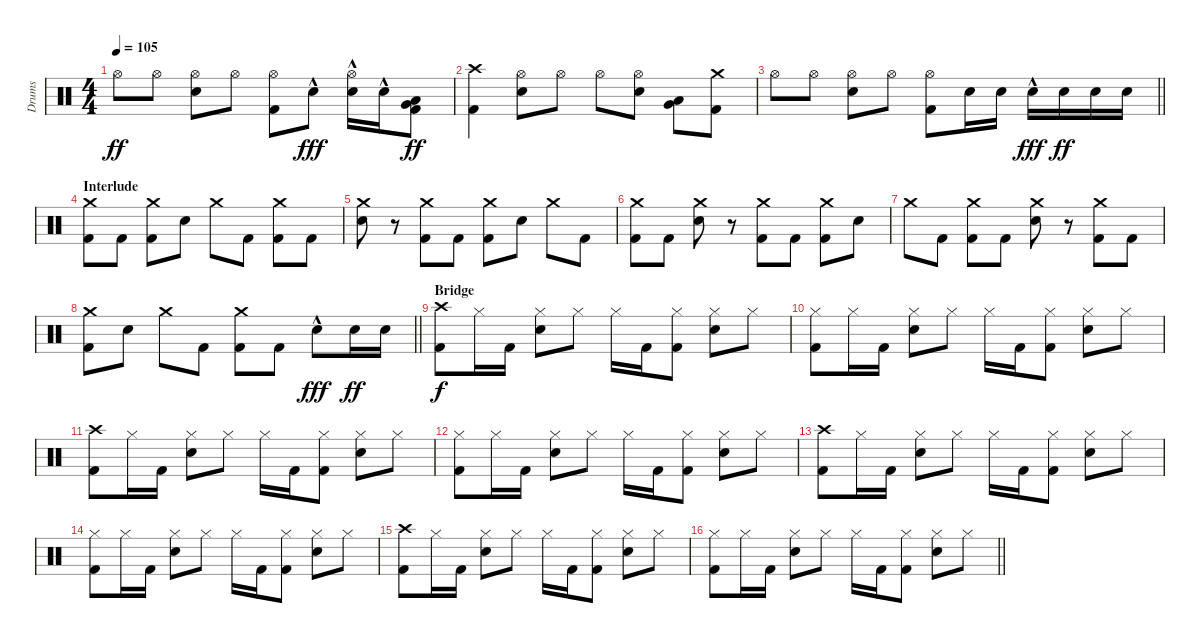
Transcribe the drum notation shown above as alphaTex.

\track ("Drums" "Drums") {instrument percussion}
\staff {score}
\articulation defaults
\ts (4 4)
\tempo 105
\clef neutral
\ks c "Hi-Hat (open)".8{dy ff} "Hi-Hat (open)".8
("Hi-Hat (open)" "Electric Snare (hit)").8 "Hi-Hat (open)".8 ("Hi-Hat (open)" "Kick (hit) 2").8 "Electric Snare (hit)"{hac}.8{dy fff} ("Hi-Hat (open)" "Electric Snare (hit)"{hac}).16 "Electric Snare (hit)"{hac}.16 ("Very Low Tom (hit)" "Low Floor Tom (hit)" "Kick (hit) 2").8{dy ff} |
("Crash high (hit)" "Kick (hit) 2").4 ("Hi-Hat (open)" "Electric Snare (hit)").8 "Hi-Hat (open)".8 "Hi-Hat (open)".8 ("Hi-Hat (open)" "Electric Snare (hit)").8 ("Very Low Tom (hit)" "Low Floor Tom (hit)").8 ("Crash medium (hit)" "Kick (hit) 2").8 |
\barLineRight lightlight "Hi-Hat (open)".8 "Hi-Hat (open)".8
("Hi-Hat (open)" "Electric Snare (hit)").8 "Hi-Hat (open)".8 ("Hi-Hat (open)" "Kick (hit) 2").8 "Electric Snare (hit)".16 "Electric Snare (hit)".16 "Electric Snare (hit)"{hac}.16{dy fff} "Electric Snare (hit)".16{dy ff} "Electric Snare (hit)".16 "Electric Snare (hit)".16 |
\section ("" "Interlude")
("Crash medium (hit)" "Kick (hit) 2").8 "Kick (hit) 2".8 ("Crash medium (hit)" "Kick (hit) 2").8 "Electric Snare (hit)".8 "Crash medium (hit)".8 "Kick (hit) 2".8 ("Crash medium (hit)" "Kick (hit) 2").8 "Kick (hit) 2".8 |
("Crash medium (hit)" "Electric Snare (hit)").8 r.8 ("Crash medium (hit)" "Kick (hit) 2").8 "Kick (hit) 2".8 ("Crash medium (hit)" "Kick (hit) 2").8 "Electric Snare (hit)".8 "Crash medium (hit)".8 "Kick (hit) 2".8 |
("Crash medium (hit)" "Kick (hit) 2").8 "Kick (hit) 2".8 ("Crash medium (hit)" "Electric Snare (hit)").8 r.8 ("Crash medium (hit)" "Kick (hit) 2").8 "Kick (hit) 2".8 ("Crash medium (hit)" "Kick (hit) 2").8 "Electric Snare (hit)".8 |
"Crash medium (hit)".8 "Kick (hit) 2".8 ("Crash medium (hit)" "Kick (hit) 2").8 "Kick (hit) 2".8 ("Crash medium (hit)" "Electric Snare (hit)").8 r.8 ("Crash medium (hit)" "Kick (hit) 2").8 "Kick (hit) 2".8 |
\barLineRight lightlight
("Crash medium (hit)" "Kick (hit) 2").8 "Electric Snare (hit)".8 "Crash medium (hit)".8 "Kick (hit) 2".8 ("Crash medium (hit)" "Kick (hit) 2").8 "Kick (hit) 2".8 "Electric Snare (hit)"{hac}.8{dy fff} "Electric Snare (hit)".16{dy ff} "Electric Snare (hit)".16 |
\section ("" "Bridge")
("Crash high (hit)" "Kick (hit) 2").8{dy f} "Hi-Hat (closed)".16 "Kick (hit) 2".16 ("Hi-Hat (closed)" "Electric Snare (hit)").8 "Hi-Hat (closed)".8 "Hi-Hat (closed)".16 "Kick (hit) 2".16 ("Hi-Hat (closed)" "Kick (hit) 2").8 ("Hi-Hat (closed)" "Electric Snare (hit)").8 "Hi-Hat (closed)".8 |
("Hi-Hat (closed)" "Kick (hit) 2").8 "Hi-Hat (closed)".16 "Kick (hit) 2".16 ("Hi-Hat (closed)" "Electric Snare (hit)").8 "Hi-Hat (closed)".8 "Hi-Hat (closed)".16 "Kick (hit) 2".16 ("Hi-Hat (closed)" "Kick (hit) 2").8 ("Hi-Hat (closed)" "Electric Snare (hit)").8 "Hi-Hat (closed)".8 |
("Crash high (hit)" "Kick (hit) 2").8 "Hi-Hat (closed)".16 "Kick (hit) 2".16 ("Hi-Hat (closed)" "Electric Snare (hit)").8 "Hi-Hat (closed)".8 "Hi-Hat (closed)".16 "Kick (hit) 2".16 ("Hi-Hat (closed)" "Kick (hit) 2").8 ("Hi-Hat (closed)" "Electric Snare (hit)").8 "Hi-Hat (closed)".8 |
("Hi-Hat (closed)" "Kick (hit) 2").8 "Hi-Hat (closed)".16 "Kick (hit) 2".16 ("Hi-Hat (closed)" "Electric Snare (hit)").8 "Hi-Hat (closed)".8 "Hi-Hat (closed)".16 "Kick (hit) 2".16 ("Hi-Hat (closed)" "Kick (hit) 2").8 ("Hi-Hat (closed)" "Electric Snare (hit)").8 "Hi-Hat (closed)".8 |
("Crash high (hit)" "Kick (hit) 2").8 "Hi-Hat (closed)".16 "Kick (hit) 2".16 ("Hi-Hat (closed)" "Electric Snare (hit)").8 "Hi-Hat (closed)".8 "Hi-Hat (closed)".16 "Kick (hit) 2".16 ("Hi-Hat (closed)" "Kick (hit) 2").8 ("Hi-Hat (closed)" "Electric Snare (hit)").8 "Hi-Hat (closed)".8 |
("Hi-Hat (closed)" "Kick (hit) 2").8 "Hi-Hat (closed)".16 "Kick (hit) 2".16 ("Hi-Hat (closed)" "Electric Snare (hit)").8 "Hi-Hat (closed)".8 "Hi-Hat (closed)".16 "Kick (hit) 2".16 ("Hi-Hat (closed)" "Kick (hit) 2").8 ("Hi-Hat (closed)" "Electric Snare (hit)").8 "Hi-Hat (closed)".8 |
("Crash high (hit)" "Kick (hit) 2").8 "Hi-Hat (closed)".16 "Kick (hit) 2".16 ("Hi-Hat (closed)" "Electric Snare (hit)").8 "Hi-Hat (closed)".8 "Hi-Hat (closed)".16 "Kick (hit) 2".16 ("Hi-Hat (closed)" "Kick (hit) 2").8 ("Hi-Hat (closed)" "Electric Snare (hit)").8 "Hi-Hat (closed)".8 |
\barLineRight lightlight
("Hi-Hat (closed)" "Kick (hit) 2").8 "Hi-Hat (closed)".16 "Kick (hit) 2".16 ("Hi-Hat (closed)" "Electric Snare (hit)").8 "Hi-Hat (closed)".8 "Hi-Hat (closed)".16 "Kick (hit) 2".16 ("Hi-Hat (closed)" "Kick (hit) 2").8 ("Hi-Hat (closed)" "Electric Snare (hit)").8 "Hi-Hat (closed)".8
